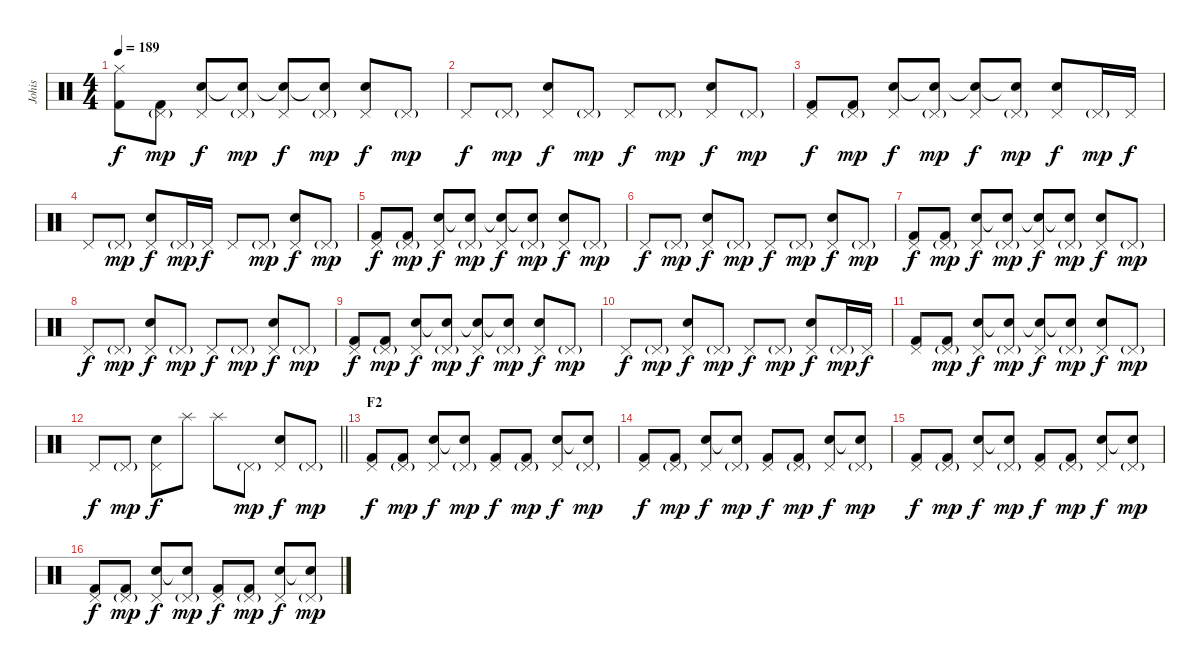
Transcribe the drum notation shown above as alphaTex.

\track ("Johis" "Johis") {instrument percussion}
\staff {score}
\articulation defaults
\ts (4 4)
\tempo 189
\clef neutral
\ks c
("Hi-Hat (closed)" "Kick (hit) 2").8{dy f} ("Pedal Hi-Hat (hit)"{g} "Kick (hit) 2").8{dy mp} ("Pedal Hi-Hat (hit)" "Electric Snare (hit)").8{dy f} ("Pedal Hi-Hat (hit)"{g} "Snare (hit)"{t}).8{dy mp} ("Pedal Hi-Hat (hit)" "Electric Snare (hit)"{t}).8{dy f} ("Pedal Hi-Hat (hit)"{g} "Snare (hit)"{t}).8{dy mp} ("Pedal Hi-Hat (hit)" "Electric Snare (hit)").8{dy f} "Pedal Hi-Hat (hit)"{g}.8{dy mp} |
"Pedal Hi-Hat (hit)".8{dy f} "Pedal Hi-Hat (hit)"{g}.8{dy mp} ("Pedal Hi-Hat (hit)" "Electric Snare (hit)").8{dy f} "Pedal Hi-Hat (hit)"{g}.8{dy mp} "Pedal Hi-Hat (hit)".8{dy f} "Pedal Hi-Hat (hit)"{g}.8{dy mp} ("Pedal Hi-Hat (hit)" "Electric Snare (hit)").8{dy f} "Pedal Hi-Hat (hit)"{g}.8{dy mp} |
("Pedal Hi-Hat (hit)" "Kick (hit) 2").8{dy f} ("Pedal Hi-Hat (hit)"{g} "Kick (hit) 2").8{dy mp} ("Pedal Hi-Hat (hit)" "Electric Snare (hit)").8{dy f} ("Pedal Hi-Hat (hit)"{g} "Snare (hit)"{t}).8{dy mp} ("Pedal Hi-Hat (hit)" "Electric Snare (hit)"{t}).8{dy f} ("Pedal Hi-Hat (hit)"{g} "Snare (hit)"{t}).8{dy mp} ("Pedal Hi-Hat (hit)" "Electric Snare (hit)").8{dy f} "Pedal Hi-Hat (hit)"{g}.16{dy mp} "Pedal Hi-Hat (hit)".16{dy f} |
"Pedal Hi-Hat (hit)".8 "Pedal Hi-Hat (hit)"{g}.8{dy mp} ("Pedal Hi-Hat (hit)" "Electric Snare (hit)").8{dy f} "Pedal Hi-Hat (hit)"{g}.16{dy mp} "Pedal Hi-Hat (hit)".16{dy f} "Pedal Hi-Hat (hit)".8 "Pedal Hi-Hat (hit)"{g}.8{dy mp} ("Pedal Hi-Hat (hit)" "Electric Snare (hit)").8{dy f} "Pedal Hi-Hat (hit)"{g}.8{dy mp} |
("Pedal Hi-Hat (hit)" "Kick (hit) 2").8{dy f} ("Pedal Hi-Hat (hit)"{g} "Kick (hit) 2").8{dy mp} ("Pedal Hi-Hat (hit)" "Electric Snare (hit)").8{dy f} ("Pedal Hi-Hat (hit)"{g} "Snare (hit)"{t}).8{dy mp} ("Pedal Hi-Hat (hit)" "Electric Snare (hit)"{t}).8{dy f} ("Pedal Hi-Hat (hit)"{g} "Snare (hit)"{t}).8{dy mp} ("Pedal Hi-Hat (hit)" "Electric Snare (hit)").8{dy f} "Pedal Hi-Hat (hit)"{g}.8{dy mp} |
"Pedal Hi-Hat (hit)".8{dy f} "Pedal Hi-Hat (hit)"{g}.8{dy mp} ("Pedal Hi-Hat (hit)" "Electric Snare (hit)").8{dy f} "Pedal Hi-Hat (hit)"{g}.8{dy mp} "Pedal Hi-Hat (hit)".8{dy f} "Pedal Hi-Hat (hit)"{g}.8{dy mp} ("Pedal Hi-Hat (hit)" "Electric Snare (hit)").8{dy f} "Pedal Hi-Hat (hit)"{g}.8{dy mp} |
("Pedal Hi-Hat (hit)" "Kick (hit) 2").8{dy f} ("Pedal Hi-Hat (hit)"{g} "Kick (hit) 2").8{dy mp} ("Pedal Hi-Hat (hit)" "Electric Snare (hit)").8{dy f} ("Pedal Hi-Hat (hit)"{g} "Snare (hit)"{t}).8{dy mp} ("Pedal Hi-Hat (hit)" "Electric Snare (hit)"{t}).8{dy f} ("Pedal Hi-Hat (hit)"{g} "Snare (hit)"{t}).8{dy mp} ("Pedal Hi-Hat (hit)" "Electric Snare (hit)").8{dy f} "Pedal Hi-Hat (hit)"{g}.8{dy mp} |
"Pedal Hi-Hat (hit)".8{dy f} "Pedal Hi-Hat (hit)"{g}.8{dy mp} ("Pedal Hi-Hat (hit)" "Electric Snare (hit)").8{dy f} "Pedal Hi-Hat (hit)"{g}.8{dy mp} "Pedal Hi-Hat (hit)".8{dy f} "Pedal Hi-Hat (hit)"{g}.8{dy mp} ("Pedal Hi-Hat (hit)" "Electric Snare (hit)").8{dy f} "Pedal Hi-Hat (hit)"{g}.8{dy mp} |
("Pedal Hi-Hat (hit)" "Kick (hit) 2").8{dy f} ("Pedal Hi-Hat (hit)"{g} "Kick (hit) 2").8{dy mp} ("Pedal Hi-Hat (hit)" "Electric Snare (hit)").8{dy f} ("Pedal Hi-Hat (hit)"{g} "Snare (hit)"{t}).8{dy mp} ("Pedal Hi-Hat (hit)" "Electric Snare (hit)"{t}).8{dy f} ("Pedal Hi-Hat (hit)"{g} "Snare (hit)"{t}).8{dy mp} ("Pedal Hi-Hat (hit)" "Electric Snare (hit)").8{dy f} "Pedal Hi-Hat (hit)"{g}.8{dy mp} |
"Pedal Hi-Hat (hit)".8{dy f} "Pedal Hi-Hat (hit)"{g}.8{dy mp} ("Pedal Hi-Hat (hit)" "Electric Snare (hit)").8{dy f} "Pedal Hi-Hat (hit)"{g}.8{dy mp} "Pedal Hi-Hat (hit)".8{dy f} "Pedal Hi-Hat (hit)"{g}.8{dy mp} ("Pedal Hi-Hat (hit)" "Electric Snare (hit)").8{dy f} "Pedal Hi-Hat (hit)"{g}.16{dy mp} "Pedal Hi-Hat (hit)".16{dy f} |
("Pedal Hi-Hat (hit)" "Kick (hit) 2").8 ("Pedal Hi-Hat (hit)"{g} "Kick (hit) 2").8{dy mp} ("Pedal Hi-Hat (hit)" "Electric Snare (hit)").8{dy f} ("Pedal Hi-Hat (hit)"{g} "Snare (hit)"{t}).8{dy mp} ("Pedal Hi-Hat (hit)" "Electric Snare (hit)"{t}).8{dy f} ("Pedal Hi-Hat (hit)"{g} "Snare (hit)"{t}).8{dy mp} ("Pedal Hi-Hat (hit)" "Electric Snare (hit)").8{dy f} "Pedal Hi-Hat (hit)"{g}.8{dy mp} |
\barLineRight lightlight "Pedal Hi-Hat (hit)".8{dy f} "Pedal Hi-Hat (hit)"{g}.8{dy mp}
("Pedal Hi-Hat (hit)" "Electric Snare (hit)").8{dy f} "Splash (hit)".8 "Splash (hit)".8 "Pedal Hi-Hat (hit)"{g}.8{dy mp} ("Pedal Hi-Hat (hit)" "Electric Snare (hit)").8{dy f} "Pedal Hi-Hat (hit)"{g}.8{dy mp} |
\section ("" "F2")
("Pedal Hi-Hat (hit)" "Kick (hit) 2").8{dy f} ("Pedal Hi-Hat (hit)"{g} "Kick (hit) 2").8{dy mp} ("Pedal Hi-Hat (hit)" "Electric Snare (hit)").8{dy f} ("Pedal Hi-Hat (hit)"{g} "Snare (hit)"{t}).8{dy mp} ("Pedal Hi-Hat (hit)" "Kick (hit) 2").8{dy f} ("Pedal Hi-Hat (hit)"{g} "Kick (hit) 2").8{dy mp} ("Pedal Hi-Hat (hit)" "Electric Snare (hit)").8{dy f} ("Pedal Hi-Hat (hit)"{g} "Snare (hit)"{t}).8{dy mp} |
("Pedal Hi-Hat (hit)" "Kick (hit) 2").8{dy f} ("Pedal Hi-Hat (hit)"{g} "Kick (hit) 2").8{dy mp} ("Pedal Hi-Hat (hit)" "Electric Snare (hit)").8{dy f} ("Pedal Hi-Hat (hit)"{g} "Snare (hit)"{t}).8{dy mp} ("Pedal Hi-Hat (hit)" "Kick (hit) 2").8{dy f} ("Pedal Hi-Hat (hit)"{g} "Kick (hit) 2").8{dy mp} ("Pedal Hi-Hat (hit)" "Electric Snare (hit)").8{dy f} ("Pedal Hi-Hat (hit)"{g} "Snare (hit)"{t}).8{dy mp} |
("Pedal Hi-Hat (hit)" "Kick (hit) 2").8{dy f} ("Pedal Hi-Hat (hit)"{g} "Kick (hit) 2").8{dy mp} ("Pedal Hi-Hat (hit)" "Electric Snare (hit)").8{dy f} ("Pedal Hi-Hat (hit)"{g} "Snare (hit)"{t}).8{dy mp} ("Pedal Hi-Hat (hit)" "Kick (hit) 2").8{dy f} ("Pedal Hi-Hat (hit)"{g} "Kick (hit) 2").8{dy mp} ("Pedal Hi-Hat (hit)" "Electric Snare (hit)").8{dy f} ("Pedal Hi-Hat (hit)"{g} "Snare (hit)"{t}).8{dy mp} |
("Pedal Hi-Hat (hit)" "Kick (hit) 2").8{dy f} ("Pedal Hi-Hat (hit)"{g} "Kick (hit) 2").8{dy mp} ("Pedal Hi-Hat (hit)" "Electric Snare (hit)").8{dy f} ("Pedal Hi-Hat (hit)"{g} "Snare (hit)"{t}).8{dy mp} ("Pedal Hi-Hat (hit)" "Kick (hit) 2").8{dy f} ("Pedal Hi-Hat (hit)"{g} "Kick (hit) 2").8{dy mp} ("Pedal Hi-Hat (hit)" "Electric Snare (hit)").8{dy f} ("Pedal Hi-Hat (hit)"{g} "Snare (hit)"{t}).8{dy mp}
